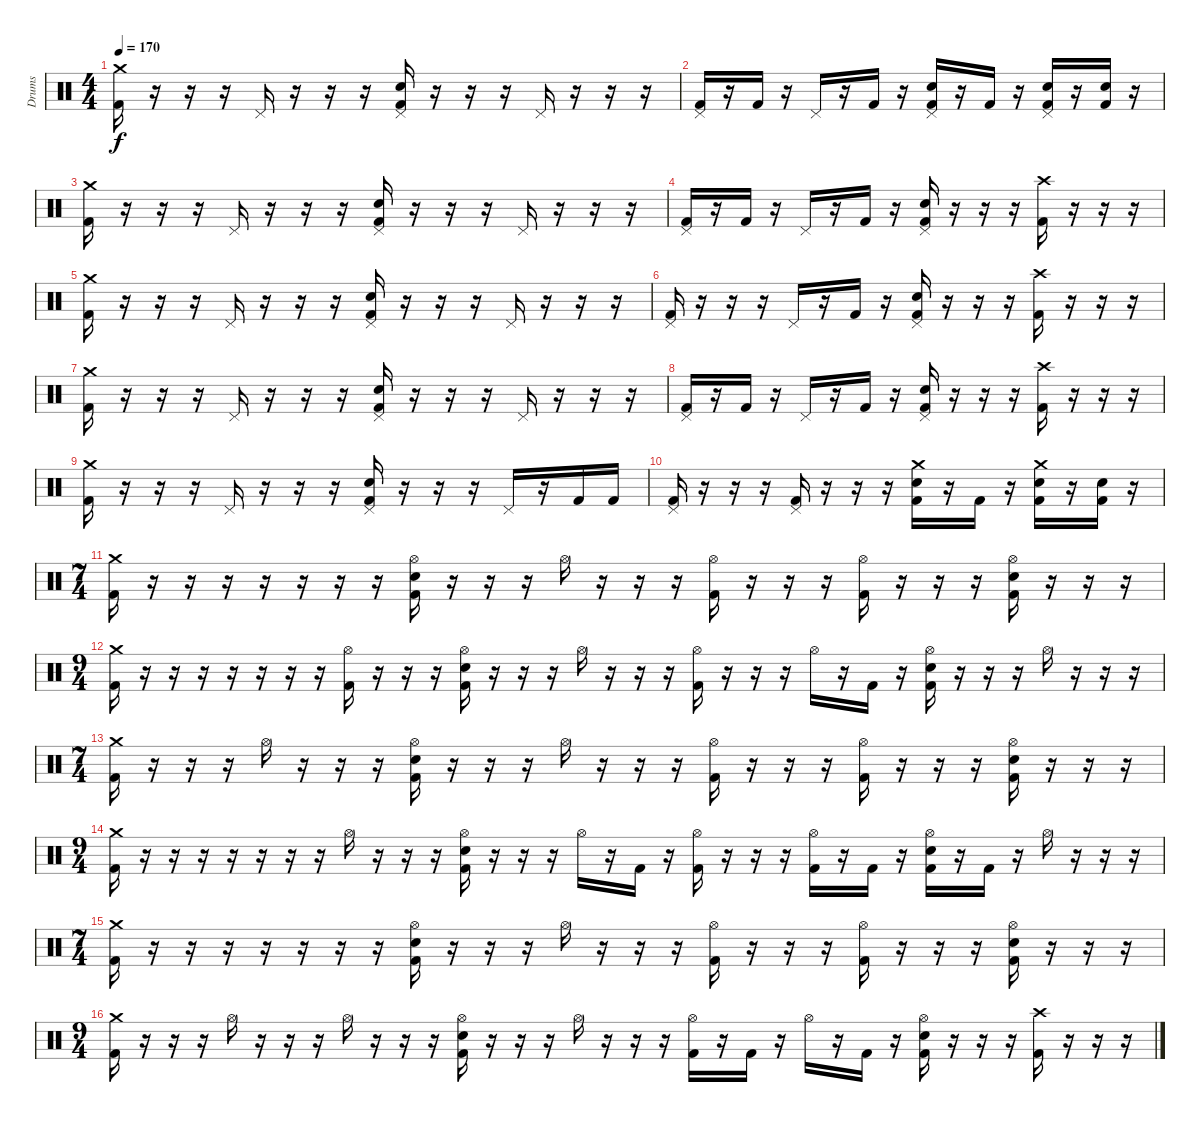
\track ("Drums" "Drums") {instrument percussion}
\staff {score}
\articulation defaults
\ts (4 4)
\tempo 170
\clef neutral
\ks c
("Crash medium (hit)" "Kick (hit) 2").16{dy f} r.16 r.16 r.16 "Pedal Hi-Hat (hit)".16 r.16 r.16 r.16 ("Pedal Hi-Hat (hit)" "Electric Snare (hit)" "Kick (hit) 2").16 r.16 r.16 r.16 "Pedal Hi-Hat (hit)".16 r.16 r.16 r.16 |
("Pedal Hi-Hat (hit)" "Kick (hit) 2").16 r.16 "Kick (hit) 2".16 r.16 "Pedal Hi-Hat (hit)".16 r.16 "Kick (hit) 2".16 r.16 ("Pedal Hi-Hat (hit)" "Electric Snare (hit)" "Kick (hit) 2").16 r.16 "Kick (hit) 2".16 r.16 ("Pedal Hi-Hat (hit)" "Electric Snare (hit)" "Kick (hit) 2").16 r.16 ("Electric Snare (hit)" "Kick (hit) 2").16 r.16 |
("Crash medium (hit)" "Kick (hit) 2").16 r.16 r.16 r.16 "Pedal Hi-Hat (hit)".16 r.16 r.16 r.16 ("Pedal Hi-Hat (hit)" "Electric Snare (hit)" "Kick (hit) 2").16 r.16 r.16 r.16 "Pedal Hi-Hat (hit)".16 r.16 r.16 r.16 |
("Pedal Hi-Hat (hit)" "Kick (hit) 2").16 r.16 "Kick (hit) 2".16 r.16 "Pedal Hi-Hat (hit)".16 r.16 "Kick (hit) 2".16 r.16 ("Pedal Hi-Hat (hit)" "Electric Snare (hit)" "Kick (hit) 2").16 r.16 r.16 r.16 ("Crash high (hit)" "Kick (hit) 2").16 r.16 r.16 r.16 |
("Crash medium (hit)" "Kick (hit) 2").16 r.16 r.16 r.16 "Pedal Hi-Hat (hit)".16 r.16 r.16 r.16 ("Pedal Hi-Hat (hit)" "Electric Snare (hit)" "Kick (hit) 2").16 r.16 r.16 r.16 "Pedal Hi-Hat (hit)".16 r.16 r.16 r.16 |
("Pedal Hi-Hat (hit)" "Kick (hit) 2").16 r.16 r.16 r.16 "Pedal Hi-Hat (hit)".16 r.16 "Kick (hit) 2".16 r.16 ("Pedal Hi-Hat (hit)" "Electric Snare (hit)" "Kick (hit) 2").16 r.16 r.16 r.16 ("Crash high (hit)" "Kick (hit) 2").16 r.16 r.16 r.16 |
("Crash medium (hit)" "Kick (hit) 2").16 r.16 r.16 r.16 "Pedal Hi-Hat (hit)".16 r.16 r.16 r.16 ("Pedal Hi-Hat (hit)" "Electric Snare (hit)" "Kick (hit) 2").16 r.16 r.16 r.16 "Pedal Hi-Hat (hit)".16 r.16 r.16 r.16 |
("Pedal Hi-Hat (hit)" "Kick (hit) 2").16 r.16 "Kick (hit) 2".16 r.16 "Pedal Hi-Hat (hit)".16 r.16 "Kick (hit) 2".16 r.16 ("Pedal Hi-Hat (hit)" "Electric Snare (hit)" "Kick (hit) 2").16 r.16 r.16 r.16 ("Crash high (hit)" "Kick (hit) 2").16 r.16 r.16 r.16 |
("Crash medium (hit)" "Kick (hit) 2").16 r.16 r.16 r.16 "Pedal Hi-Hat (hit)".16 r.16 r.16 r.16 ("Pedal Hi-Hat (hit)" "Electric Snare (hit)" "Kick (hit) 2").16 r.16 r.16 r.16 "Pedal Hi-Hat (hit)".16 r.16 "Kick (hit) 2".16 "Kick (hit) 2".16 |
("Pedal Hi-Hat (hit)" "Kick (hit) 2").16 r.16 r.16 r.16 ("Pedal Hi-Hat (hit)" "Kick (hit) 2").16 r.16 r.16 r.16 ("Crash medium (hit)" "Electric Snare (hit)" "Kick (hit) 2").16 r.16 "Kick (hit) 2".16 r.16 ("Crash medium (hit)" "Electric Snare (hit)" "Kick (hit) 2").16 r.16 ("Electric Snare (hit)" "Kick (hit) 2").16 r.16 |
\ts (7 4)
\section ("" "")
("Crash medium (hit)" "Kick (hit) 2").16 r.16 r.16 r.16 r.16 r.16 r.16 r.16 ("Hi-Hat (open)" "Electric Snare (hit)" "Kick (hit) 2").16 r.16 r.16 r.16 "Hi-Hat (open)".16 r.16 r.16 r.16 ("Hi-Hat (open)" "Kick (hit) 2").16 r.16 r.16 r.16 ("Hi-Hat (open)" "Kick (hit) 2").16 r.16 r.16 r.16 ("Hi-Hat (open)" "Electric Snare (hit)" "Kick (hit) 2").16 r.16 r.16 r.16 |
\ts (9 4)
("Crash medium (hit)" "Kick (hit) 2").16 r.16 r.16 r.16 r.16 r.16 r.16 r.16 ("Hi-Hat (open)" "Kick (hit) 2").16 r.16 r.16 r.16 ("Hi-Hat (open)" "Electric Snare (hit)" "Kick (hit) 2").16 r.16 r.16 r.16 "Hi-Hat (open)".16 r.16 r.16 r.16 ("Hi-Hat (open)" "Kick (hit) 2").16 r.16 r.16 r.16 "Hi-Hat (open)".16 r.16 "Kick (hit) 2".16 r.16 ("Hi-Hat (open)" "Electric Snare (hit)" "Kick (hit) 2").16 r.16 r.16 r.16 "Hi-Hat (open)".16 r.16 r.16 r.16 |
\ts (7 4)
("Crash medium (hit)" "Kick (hit) 2").16 r.16 r.16 r.16 "Hi-Hat (open)".16 r.16 r.16 r.16 ("Hi-Hat (open)" "Electric Snare (hit)" "Kick (hit) 2").16 r.16 r.16 r.16 "Hi-Hat (open)".16 r.16 r.16 r.16 ("Hi-Hat (open)" "Kick (hit) 2").16 r.16 r.16 r.16 ("Hi-Hat (open)" "Kick (hit) 2").16 r.16 r.16 r.16 ("Hi-Hat (open)" "Electric Snare (hit)" "Kick (hit) 2").16 r.16 r.16 r.16 |
\ts (9 4)
("Crash medium (hit)" "Kick (hit) 2").16 r.16 r.16 r.16 r.16 r.16 r.16 r.16 "Hi-Hat (open)".16 r.16 r.16 r.16 ("Hi-Hat (open)" "Electric Snare (hit)" "Kick (hit) 2").16 r.16 r.16 r.16 "Hi-Hat (open)".16 r.16 "Kick (hit) 2".16 r.16 ("Hi-Hat (open)" "Kick (hit) 2").16 r.16 r.16 r.16 ("Hi-Hat (open)" "Kick (hit) 2").16 r.16 "Kick (hit) 2".16 r.16 ("Hi-Hat (open)" "Electric Snare (hit)" "Kick (hit) 2").16 r.16 "Kick (hit) 2".16 r.16 "Hi-Hat (open)".16 r.16 r.16 r.16 |
\ts (7 4)
("Crash medium (hit)" "Kick (hit) 2").16 r.16 r.16 r.16 r.16 r.16 r.16 r.16 ("Hi-Hat (open)" "Electric Snare (hit)" "Kick (hit) 2").16 r.16 r.16 r.16 "Hi-Hat (open)".16 r.16 r.16 r.16 ("Hi-Hat (open)" "Kick (hit) 2").16 r.16 r.16 r.16 ("Hi-Hat (open)" "Kick (hit) 2").16 r.16 r.16 r.16 ("Hi-Hat (open)" "Electric Snare (hit)" "Kick (hit) 2").16 r.16 r.16 r.16 |
\ts (9 4)
("Crash medium (hit)" "Kick (hit) 2").16 r.16 r.16 r.16 "Hi-Hat (open)".16 r.16 r.16 r.16 "Hi-Hat (open)".16 r.16 r.16 r.16 ("Hi-Hat (open)" "Electric Snare (hit)" "Kick (hit) 2").16 r.16 r.16 r.16 "Hi-Hat (open)".16 r.16 r.16 r.16 ("Hi-Hat (open)" "Kick (hit) 2").16 r.16 "Kick (hit) 2".16 r.16 "Hi-Hat (open)".16 r.16 "Kick (hit) 2".16 r.16 ("Hi-Hat (open)" "Electric Snare (hit)" "Kick (hit) 2").16 r.16 r.16 r.16 ("Crash high (hit)" "Kick (hit) 2").16 r.16 r.16 r.16
